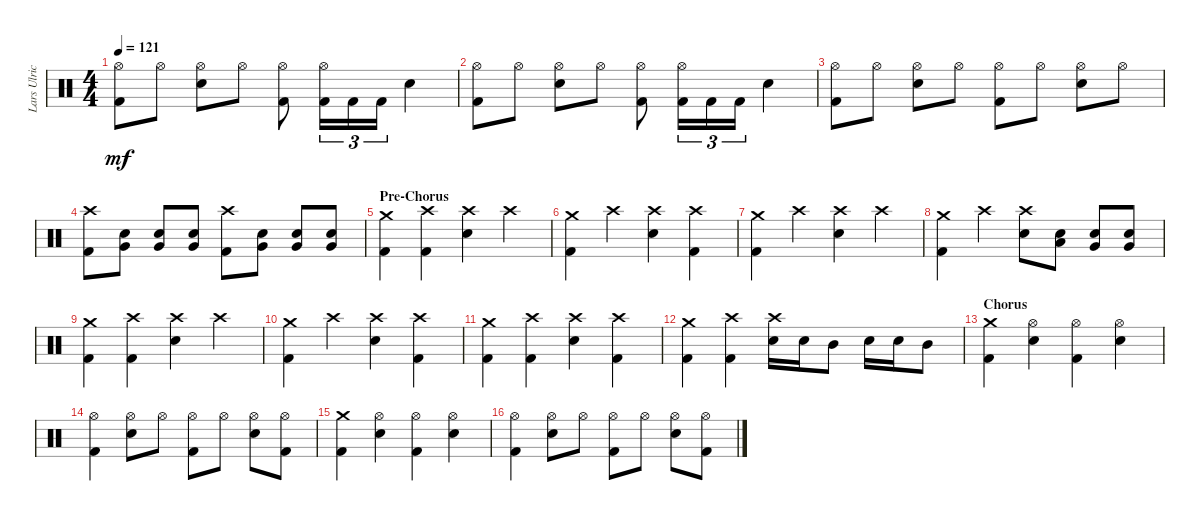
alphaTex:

\track ("Lars Ulrich" "Lars Ulric") {instrument percussion}
\staff {score}
\articulation defaults
\ts (4 4)
\tempo 121
\clef neutral
\ks c
("Hi-Hat (open)" "Kick (hit) 2").8{dy mf} "Hi-Hat (open)".8 ("Hi-Hat (open)" "Snare (hit) 2").8 "Hi-Hat (open)".8 ("Hi-Hat (open)" "Kick (hit) 2").8 ("Hi-Hat (open)" "Kick (hit) 2").16{tu (3 2)} "Kick (hit) 2".16{tu (3 2)} "Kick (hit) 2".16{tu (3 2)} "Snare (hit) 2".4 |
("Hi-Hat (open)" "Kick (hit) 2").8 "Hi-Hat (open)".8 ("Hi-Hat (open)" "Snare (hit) 2").8 "Hi-Hat (open)".8 ("Hi-Hat (open)" "Kick (hit) 2").8 ("Hi-Hat (open)" "Kick (hit) 2").16{tu (3 2)} "Kick (hit) 2".16{tu (3 2)} "Kick (hit) 2".16{tu (3 2)} "Snare (hit) 2".4 |
("Hi-Hat (open)" "Kick (hit) 2").8 "Hi-Hat (open)".8 ("Hi-Hat (open)" "Snare (hit) 2").8 "Hi-Hat (open)".8 ("Hi-Hat (open)" "Kick (hit) 2").8 "Hi-Hat (open)".8 ("Hi-Hat (open)" "Snare (hit) 2").8 "Hi-Hat (open)".8 |
("Crash high (hit)" "Kick (hit) 2").8 ("Snare (hit) 2" "Very Low Tom (hit)").8 ("Snare (hit) 2" "Very Low Tom (hit)").8 ("Snare (hit) 2" "Very Low Tom (hit)").8 ("Crash high (hit)" "Kick (hit) 2").8 ("Snare (hit) 2" "Very Low Tom (hit)").8 ("Snare (hit) 2" "Very Low Tom (hit)").8 ("Snare (hit) 2" "Very Low Tom (hit)").8 |
\section ("" "Pre-Chorus")
("Crash medium (hit)" "Kick (hit) 2").4 ("Crash high (hit)" "Kick (hit) 2").4 ("Crash high (hit)" "Snare (hit) 2").4 "Crash high (hit)".4 |
("Crash medium (hit)" "Kick (hit) 2").4 "Crash high (hit)".4 ("Crash high (hit)" "Snare (hit) 2").4 ("Crash high (hit)" "Kick (hit) 2").4 |
("Crash medium (hit)" "Kick (hit) 2").4 "Crash high (hit)".4 ("Crash high (hit)" "Snare (hit) 2").4 "Crash high (hit)".4 |
("Crash medium (hit)" "Kick (hit) 2").4 "Crash high (hit)".4 ("Crash high (hit)" "Snare (hit) 2").8 ("Snare (hit) 2" "Low Tom (hit)").8 ("Snare (hit) 2" "Very Low Tom (hit)").8 ("Snare (hit) 2" "Very Low Tom (hit)").8 |
("Crash medium (hit)" "Kick (hit) 2").4 ("Crash high (hit)" "Kick (hit) 2").4 ("Crash high (hit)" "Snare (hit) 2").4 "Crash high (hit)".4 |
("Crash medium (hit)" "Kick (hit) 2").4 "Crash high (hit)".4 ("Crash high (hit)" "Snare (hit) 2").4 ("Crash high (hit)" "Kick (hit) 2").4 |
("Crash medium (hit)" "Kick (hit) 2").4 ("Crash high (hit)" "Kick (hit) 2").4 ("Crash high (hit)" "Snare (hit) 2").4 ("Crash high (hit)" "Kick (hit) 2").4 |
("Crash medium (hit)" "Kick (hit) 2").4 ("Crash high (hit)" "Kick (hit) 2").4 ("Crash high (hit)" "Snare (hit) 2").16 "Snare (hit) 2".16 "Mid Tom (hit)".8 "Snare (hit) 2".16 "Snare (hit) 2".16 "Mid Tom (hit)".8 |
\section ("" "Chorus")
("Crash medium (hit)" "Kick (hit) 2").4 ("Hi-Hat (open)" "Snare (hit) 2").4 ("Hi-Hat (open)" "Kick (hit) 2").4 ("Hi-Hat (open)" "Snare (hit) 2").4 |
("Hi-Hat (open)" "Kick (hit) 2").4 ("Hi-Hat (open)" "Snare (hit) 2").8 "Hi-Hat (open)".8 ("Hi-Hat (open)" "Kick (hit) 2").8 "Hi-Hat (open)".8 ("Hi-Hat (open)" "Snare (hit) 2").8 ("Hi-Hat (open)" "Kick (hit) 2").8 |
("Crash medium (hit)" "Kick (hit) 2").4 ("Hi-Hat (open)" "Snare (hit) 2").4 ("Hi-Hat (open)" "Kick (hit) 2").4 ("Hi-Hat (open)" "Snare (hit) 2").4 |
("Hi-Hat (open)" "Kick (hit) 2").4 ("Hi-Hat (open)" "Snare (hit) 2").8 "Hi-Hat (open)".8 ("Hi-Hat (open)" "Kick (hit) 2").8 "Hi-Hat (open)".8 ("Hi-Hat (open)" "Snare (hit) 2").8 ("Hi-Hat (open)" "Kick (hit) 2").8
